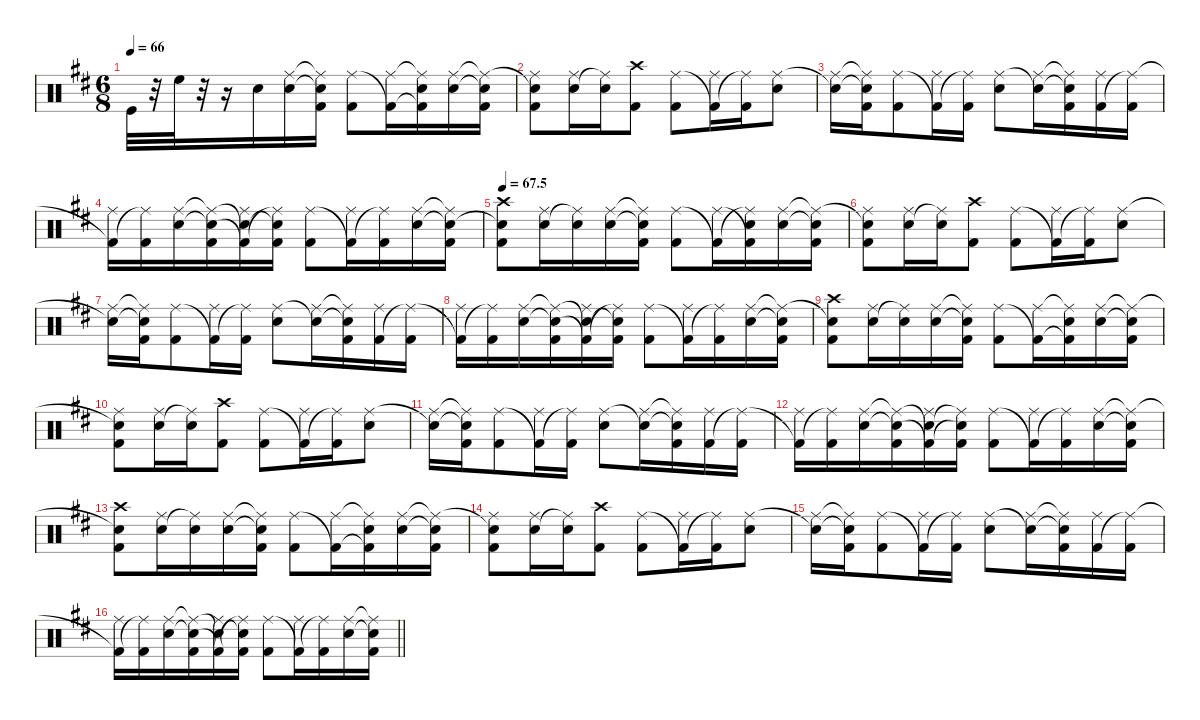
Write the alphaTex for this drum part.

\defaultSystemsLayout 4
\hideDynamics
\bracketExtendMode nobrackets
\singleTrackTrackNamePolicy hidden
\multiTrackTrackNamePolicy hidden
\firstSystemTrackNameMode fullname
\firstSystemTrackNameOrientation horizontal
\otherSystemsTrackNameOrientation horizontal
\track ("Drumkit" "drm.") {defaultSystemsLayout 4 instrument percussion}
\staff {score}
\articulation defaults
\ts (6 8)
\tempo 66
\clef neutral
\ks bminor "Kick (hit)"{acc forcenatural}.32{dy f beam Down}
r.32{beam Down} "High Floor Tom (hit)"{acc forcenatural}.32{dy mf beam Down} r.32{beam Down} r.16{beam Down} "Snare (hit) 2"{acc forcenatural}.16{dy ff beam Down} ("Snare (hit) 2"{acc forcenatural} "Ride (middle)"{acc #}).16{beam Down} ("Snare (hit) 2"{t acc forcenatural} "Ride (middle)"{t acc #} "Kick (hit) 2"{acc forcenatural}).16{beam Down} ("Ride (middle)"{acc #} "Kick (hit) 2"{acc forcenatural}).8{beam Down} ("Kick (hit) 2"{t acc forcenatural} "Ride (middle)"{acc #}).16{beam Down} ("Kick (hit) 2"{t acc forcenatural} "Ride (middle)"{t acc #} "Snare (hit) 2"{acc forcenatural}).16{beam Down} ("Ride (middle)"{acc #} "Snare (hit) 2"{acc forcenatural}).16{beam Down} ("Ride (middle)"{t acc #} "Snare (hit) 2"{t acc forcenatural} "Kick (hit) 2"{acc forcenatural}).16{beam Down} |
("Snare (hit) 2"{t acc forcenatural} "Kick (hit) 2"{acc forcenatural} "Ride (middle)"{acc #}).8{beam Down} ("Snare (hit) 2"{acc forcenatural} "Ride (middle)"{acc #}).16{beam Down} ("Ride (middle)"{t acc #} "Snare (hit) 2"{acc forcenatural}).16{beam Down} ("Kick (hit) 2"{acc forcenatural} "Crash high (hit)"{acc #}).8{beam Down} ("Ride (middle)"{acc #} "Kick (hit) 2"{acc forcenatural}).8{beam Down} ("Kick (hit) 2"{t acc forcenatural} "Ride (middle)"{acc #}).16{beam Down} ("Ride (middle)"{t acc #} "Kick (hit) 2"{acc forcenatural}).16{beam Down} ("Ride (middle)"{acc #} "Snare (hit) 2"{acc forcenatural}).8{beam Down} |
("Snare (hit) 2"{t acc forcenatural} "Ride (middle)"{acc #}).16{beam Down} ("Snare (hit) 2"{t acc forcenatural} "Ride (middle)"{t acc #} "Kick (hit) 2"{acc forcenatural}).16{beam Down} ("Ride (middle)"{acc #} "Kick (hit) 2"{acc forcenatural}).8{beam Down} ("Kick (hit) 2"{t acc forcenatural} "Ride (middle)"{acc #}).16{beam Down} ("Ride (middle)"{t acc #} "Kick (hit) 2"{acc forcenatural}).16{beam Down} ("Ride (middle)"{acc #} "Snare (hit) 2"{acc forcenatural}).8{beam Down} ("Snare (hit) 2"{t acc forcenatural} "Ride (middle)"{acc #}).16{beam Down} ("Snare (hit) 2"{t acc forcenatural} "Ride (middle)"{t acc #} "Kick (hit) 2"{acc forcenatural}).16{beam Down} ("Kick (hit) 2"{acc forcenatural} "Ride (middle)"{acc #}).16{beam Down} ("Ride (middle)"{t acc #} "Kick (hit) 2"{acc forcenatural}).16{beam Down} |
("Kick (hit) 2"{t acc forcenatural} "Ride (middle)"{acc #}).16{beam Down} ("Ride (middle)"{t acc #} "Kick (hit) 2"{acc forcenatural}).16{beam Down} ("Ride (middle)"{acc #} "Snare (hit) 2"{acc forcenatural}).16{beam Down} ("Ride (middle)"{t acc #} "Snare (hit) 2"{t acc forcenatural} "Kick (hit) 2"{acc forcenatural}).16{beam Down} ("Snare (hit) 2"{t acc forcenatural} "Kick (hit) 2"{t acc forcenatural} "Ride (middle)"{acc #}).16{beam Down} ("Snare (hit) 2"{t acc forcenatural} "Ride (middle)"{t acc #} "Kick (hit) 2"{acc forcenatural}).16{beam Down} ("Ride (middle)"{acc #} "Kick (hit) 2"{acc forcenatural}).8{beam Down} ("Kick (hit) 2"{t acc forcenatural} "Ride (middle)"{acc #}).16{beam Down} ("Ride (middle)"{t acc #} "Kick (hit) 2"{acc forcenatural}).16{beam Down} ("Ride (middle)"{acc #} "Snare (hit) 2"{acc forcenatural}).16{beam Down} ("Ride (middle)"{t acc #} "Snare (hit) 2"{t acc forcenatural} "Kick (hit) 2"{acc forcenatural}).16{beam Down} |
\tempo
67.5 ("Kick (hit) 2"{acc forcenatural} "Snare (hit) 2"{t acc forcenatural} "Crash high (hit)"{acc #}).8{beam Down} ("Snare (hit) 2"{acc forcenatural} "Ride (middle)"{acc #}).16{beam Down} ("Ride (middle)"{t acc #} "Snare (hit) 2"{acc forcenatural}).16{beam Down} ("Snare (hit) 2"{acc forcenatural} "Ride (middle)"{acc #}).16{beam Down} ("Snare (hit) 2"{t acc forcenatural} "Ride (middle)"{t acc #} "Kick (hit) 2"{acc forcenatural}).16{beam Down} ("Ride (middle)"{acc #} "Kick (hit) 2"{acc forcenatural}).8{beam Down} ("Kick (hit) 2"{t acc forcenatural} "Ride (middle)"{acc #}).16{beam Down} ("Ride (middle)"{t acc #} "Kick (hit) 2"{t acc forcenatural} "Snare (hit) 2"{acc forcenatural}).16{beam Down} ("Ride (middle)"{acc #} "Snare (hit) 2"{acc forcenatural}).16{beam Down} ("Ride (middle)"{t acc #} "Snare (hit) 2"{t acc forcenatural} "Kick (hit) 2"{acc forcenatural}).16{beam Down} |
("Snare (hit) 2"{t acc forcenatural} "Kick (hit) 2"{acc forcenatural} "Ride (middle)"{acc #}).8{beam Down} ("Snare (hit) 2"{acc forcenatural} "Ride (middle)"{acc #}).16{beam Down} ("Ride (middle)"{t acc #} "Snare (hit) 2"{acc forcenatural}).16{beam Down} ("Kick (hit) 2"{acc forcenatural} "Crash high (hit)"{acc #}).8{beam Down} ("Ride (middle)"{acc #} "Kick (hit) 2"{acc forcenatural}).8{beam Down} ("Kick (hit) 2"{t acc forcenatural} "Ride (middle)"{acc #}).16{beam Down} ("Ride (middle)"{t acc #} "Kick (hit) 2"{acc forcenatural}).16{beam Down} ("Ride (middle)"{acc #} "Snare (hit) 2"{acc forcenatural}).8{beam Down} |
("Snare (hit) 2"{t acc forcenatural} "Ride (middle)"{acc #}).16{beam Down} ("Snare (hit) 2"{t acc forcenatural} "Ride (middle)"{t acc #} "Kick (hit) 2"{acc forcenatural}).16{beam Down} ("Ride (middle)"{acc #} "Kick (hit) 2"{acc forcenatural}).8{beam Down} ("Kick (hit) 2"{t acc forcenatural} "Ride (middle)"{acc #}).16{beam Down} ("Ride (middle)"{t acc #} "Kick (hit) 2"{acc forcenatural}).16{beam Down} ("Ride (middle)"{acc #} "Snare (hit) 2"{acc forcenatural}).8{beam Down} ("Snare (hit) 2"{t acc forcenatural} "Ride (middle)"{acc #}).16{beam Down} ("Snare (hit) 2"{t acc forcenatural} "Ride (middle)"{t acc #} "Kick (hit) 2"{acc forcenatural}).16{beam Down} ("Kick (hit) 2"{acc forcenatural} "Ride (middle)"{acc #}).16{beam Down} ("Ride (middle)"{t acc #} "Kick (hit) 2"{acc forcenatural}).16{beam Down} |
("Kick (hit) 2"{t acc forcenatural} "Ride (middle)"{acc #}).16{beam Down} ("Ride (middle)"{t acc #} "Kick (hit) 2"{acc forcenatural}).16{beam Down} ("Ride (middle)"{acc #} "Snare (hit) 2"{acc forcenatural}).16{beam Down} ("Ride (middle)"{t acc #} "Snare (hit) 2"{t acc forcenatural} "Kick (hit) 2"{acc forcenatural}).16{beam Down} ("Snare (hit) 2"{t acc forcenatural} "Kick (hit) 2"{t acc forcenatural} "Ride (middle)"{acc #}).16{beam Down} ("Snare (hit) 2"{t acc forcenatural} "Ride (middle)"{t acc #} "Kick (hit) 2"{acc forcenatural}).16{beam Down} ("Ride (middle)"{acc #} "Kick (hit) 2"{acc forcenatural}).8{beam Down} ("Kick (hit) 2"{t acc forcenatural} "Ride (middle)"{acc #}).16{beam Down} ("Ride (middle)"{t acc #} "Kick (hit) 2"{acc forcenatural}).16{beam Down} ("Ride (middle)"{acc #} "Snare (hit) 2"{acc forcenatural}).16{beam Down} ("Ride (middle)"{t acc #} "Snare (hit) 2"{t acc forcenatural} "Kick (hit) 2"{acc forcenatural}).16{beam Down} |
("Snare (hit) 2"{t acc forcenatural} "Kick (hit) 2"{acc forcenatural} "Crash high (hit)"{acc #}).8{beam Down} ("Snare (hit) 2"{acc forcenatural} "Ride (middle)"{acc #}).16{beam Down} ("Ride (middle)"{t acc #} "Snare (hit) 2"{acc forcenatural}).16{beam Down} ("Snare (hit) 2"{acc forcenatural} "Ride (middle)"{acc #}).16{beam Down} ("Snare (hit) 2"{t acc forcenatural} "Ride (middle)"{t acc #} "Kick (hit) 2"{acc forcenatural}).16{beam Down} ("Ride (middle)"{acc #} "Kick (hit) 2"{acc forcenatural}).8{beam Down} ("Kick (hit) 2"{t acc forcenatural} "Ride (middle)"{acc #}).16{beam Down} ("Kick (hit) 2"{t acc forcenatural} "Ride (middle)"{t acc #} "Snare (hit) 2"{acc forcenatural}).16{beam Down} ("Ride (middle)"{acc #} "Snare (hit) 2"{acc forcenatural}).16{beam Down} ("Ride (middle)"{t acc #} "Snare (hit) 2"{t acc forcenatural} "Kick (hit) 2"{acc forcenatural}).16{beam Down} |
("Snare (hit) 2"{t acc forcenatural} "Kick (hit) 2"{acc forcenatural} "Ride (middle)"{acc #}).8{beam Down} ("Snare (hit) 2"{acc forcenatural} "Ride (middle)"{acc #}).16{beam Down} ("Ride (middle)"{t acc #} "Snare (hit) 2"{acc forcenatural}).16{beam Down} ("Kick (hit) 2"{acc forcenatural} "Crash high (hit)"{acc #}).8{beam Down} ("Ride (middle)"{acc #} "Kick (hit) 2"{acc forcenatural}).8{beam Down} ("Kick (hit) 2"{t acc forcenatural} "Ride (middle)"{acc #}).16{beam Down} ("Ride (middle)"{t acc #} "Kick (hit) 2"{acc forcenatural}).16{beam Down} ("Ride (middle)"{acc #} "Snare (hit) 2"{acc forcenatural}).8{beam Down} |
("Snare (hit) 2"{t acc forcenatural} "Ride (middle)"{acc #}).16{beam Down} ("Snare (hit) 2"{t acc forcenatural} "Ride (middle)"{t acc #} "Kick (hit) 2"{acc forcenatural}).16{beam Down} ("Ride (middle)"{acc #} "Kick (hit) 2"{acc forcenatural}).8{beam Down} ("Kick (hit) 2"{t acc forcenatural} "Ride (middle)"{acc #}).16{beam Down} ("Ride (middle)"{t acc #} "Kick (hit) 2"{acc forcenatural}).16{beam Down} ("Ride (middle)"{acc #} "Snare (hit) 2"{acc forcenatural}).8{beam Down} ("Snare (hit) 2"{t acc forcenatural} "Ride (middle)"{acc #}).16{beam Down} ("Snare (hit) 2"{t acc forcenatural} "Ride (middle)"{t acc #} "Kick (hit) 2"{acc forcenatural}).16{beam Down} ("Kick (hit) 2"{acc forcenatural} "Ride (middle)"{acc #}).16{beam Down} ("Ride (middle)"{t acc #} "Kick (hit) 2"{acc forcenatural}).16{beam Down} |
("Kick (hit) 2"{t acc forcenatural} "Ride (middle)"{acc #}).16{beam Down} ("Ride (middle)"{t acc #} "Kick (hit) 2"{acc forcenatural}).16{beam Down} ("Ride (middle)"{acc #} "Snare (hit) 2"{acc forcenatural}).16{beam Down} ("Ride (middle)"{t acc #} "Snare (hit) 2"{t acc forcenatural} "Kick (hit) 2"{acc forcenatural}).16{beam Down} ("Snare (hit) 2"{t acc forcenatural} "Kick (hit) 2"{t acc forcenatural} "Ride (middle)"{acc #}).16{beam Down} ("Ride (middle)"{t acc #} "Snare (hit) 2"{t acc forcenatural} "Kick (hit) 2"{acc forcenatural}).16{beam Down} ("Ride (middle)"{acc #} "Kick (hit) 2"{acc forcenatural}).8{beam Down} ("Kick (hit) 2"{t acc forcenatural} "Ride (middle)"{acc #}).16{beam Down} ("Ride (middle)"{t acc #} "Kick (hit) 2"{acc forcenatural}).16{beam Down} ("Ride (middle)"{acc #} "Snare (hit) 2"{acc forcenatural}).16{beam Down} ("Ride (middle)"{t acc #} "Snare (hit) 2"{t acc forcenatural} "Kick (hit) 2"{acc forcenatural}).16{beam Down} |
("Snare (hit) 2"{t acc forcenatural} "Kick (hit) 2"{acc forcenatural} "Crash high (hit)"{acc #}).8{beam Down} ("Snare (hit) 2"{acc forcenatural} "Ride (middle)"{acc #}).16{beam Down} ("Ride (middle)"{t acc #} "Snare (hit) 2"{acc forcenatural}).16{beam Down} ("Snare (hit) 2"{acc forcenatural} "Ride (middle)"{acc #}).16{beam Down} ("Snare (hit) 2"{t acc forcenatural} "Ride (middle)"{t acc #} "Kick (hit) 2"{acc forcenatural}).16{beam Down} ("Ride (middle)"{acc #} "Kick (hit) 2"{acc forcenatural}).8{beam Down} ("Kick (hit) 2"{t acc forcenatural} "Ride (middle)"{acc #}).16{beam Down} ("Kick (hit) 2"{t acc forcenatural} "Ride (middle)"{t acc #} "Snare (hit) 2"{acc forcenatural}).16{beam Down} ("Ride (middle)"{acc #} "Snare (hit) 2"{acc forcenatural}).16{beam Down} ("Ride (middle)"{t acc #} "Snare (hit) 2"{t acc forcenatural} "Kick (hit) 2"{acc forcenatural}).16{beam Down} |
("Snare (hit) 2"{t acc forcenatural} "Kick (hit) 2"{acc forcenatural} "Ride (middle)"{acc #}).8{beam Down} ("Snare (hit) 2"{acc forcenatural} "Ride (middle)"{acc #}).16{beam Down} ("Ride (middle)"{t acc #} "Snare (hit) 2"{acc forcenatural}).16{beam Down} ("Kick (hit) 2"{acc forcenatural} "Crash high (hit)"{acc #}).8{beam Down} ("Ride (middle)"{acc #} "Kick (hit) 2"{acc forcenatural}).8{beam Down} ("Kick (hit) 2"{t acc forcenatural} "Ride (middle)"{acc #}).16{beam Down} ("Ride (middle)"{t acc #} "Kick (hit) 2"{acc forcenatural}).16{beam Down} ("Ride (middle)"{acc #} "Snare (hit) 2"{acc forcenatural}).8{beam Down} |
("Snare (hit) 2"{t acc forcenatural} "Ride (middle)"{acc #}).16{beam Down} ("Snare (hit) 2"{t acc forcenatural} "Ride (middle)"{t acc #} "Kick (hit) 2"{acc forcenatural}).16{beam Down} ("Ride (middle)"{acc #} "Kick (hit) 2"{acc forcenatural}).8{beam Down} ("Kick (hit) 2"{t acc forcenatural} "Ride (middle)"{acc #}).16{beam Down} ("Ride (middle)"{t acc #} "Kick (hit) 2"{acc forcenatural}).16{beam Down} ("Ride (middle)"{acc #} "Snare (hit) 2"{acc forcenatural}).8{beam Down} ("Snare (hit) 2"{t acc forcenatural} "Ride (middle)"{acc #}).16{beam Down} ("Snare (hit) 2"{t acc forcenatural} "Ride (middle)"{t acc #} "Kick (hit) 2"{acc forcenatural}).16{beam Down} ("Kick (hit) 2"{acc forcenatural} "Ride (middle)"{acc #}).16{beam Down} ("Ride (middle)"{t acc #} "Kick (hit) 2"{acc forcenatural}).16{beam Down} |
\barLineRight lightlight
("Kick (hit) 2"{t acc forcenatural} "Ride (middle)"{acc #}).16{beam Down} ("Ride (middle)"{t acc #} "Kick (hit) 2"{acc forcenatural}).16{beam Down} ("Ride (middle)"{acc #} "Snare (hit) 2"{acc forcenatural}).16{beam Down} ("Ride (middle)"{t acc #} "Snare (hit) 2"{t acc forcenatural} "Kick (hit) 2"{acc forcenatural}).16{beam Down} ("Snare (hit) 2"{t acc forcenatural} "Kick (hit) 2"{t acc forcenatural} "Ride (middle)"{acc #}).16{beam Down} ("Snare (hit) 2"{t acc forcenatural} "Ride (middle)"{t acc #} "Kick (hit) 2"{acc forcenatural}).16{beam Down} ("Ride (middle)"{acc #} "Kick (hit) 2"{acc forcenatural}).8{beam Down} ("Kick (hit) 2"{t acc forcenatural} "Ride (middle)"{acc #}).16{beam Down} ("Ride (middle)"{t acc #} "Kick (hit) 2"{acc forcenatural}).16{beam Down} ("Ride (middle)"{acc #} "Snare (hit) 2"{acc forcenatural}).16{beam Down} ("Ride (middle)"{t acc #} "Snare (hit) 2"{t acc forcenatural} "Kick (hit) 2"{acc forcenatural}).16{beam Down}
